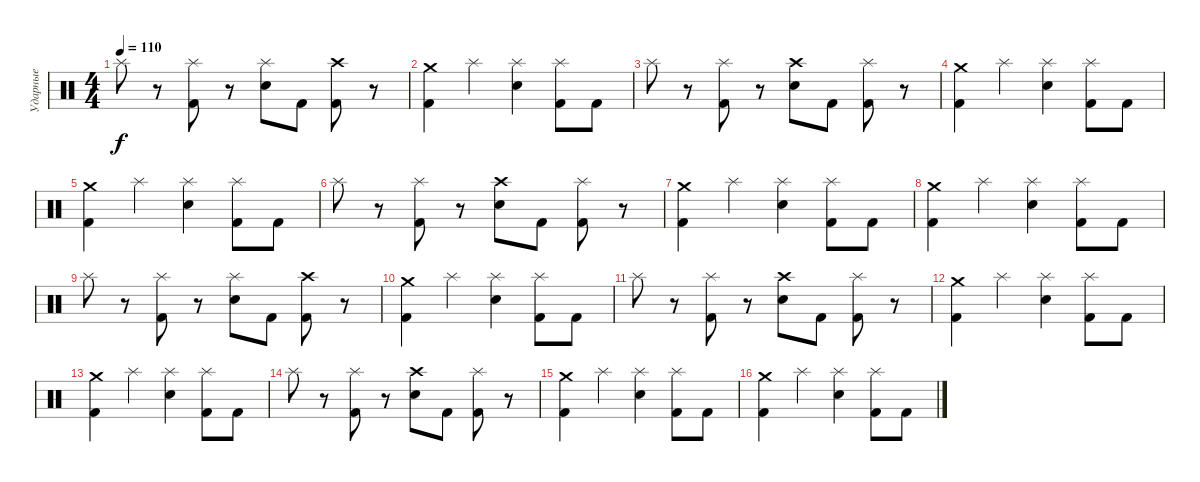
\track ("Ударные" "Ударные") {instrument percussion}
\staff {score}
\articulation defaults
\ts (4 4)
\tempo 110
\clef neutral
\ks c "Splash (hit)".8{dy f}
r.8 ("Splash (hit)" "Kick (hit) 2").8 r.8 ("Splash (hit)" "Electric Snare (hit)").8 "Kick (hit) 2".8 ("Crash high (hit)" "Kick (hit) 2").8 r.8 |
("Crash medium (hit)" "Kick (hit) 2").4 "Splash (hit)".4 ("Splash (hit)" "Electric Snare (hit)").4 ("Splash (hit)" "Kick (hit) 2").8 "Kick (hit) 2".8 |
"Splash (hit)".8 r.8 ("Splash (hit)" "Kick (hit) 2").8 r.8 ("Crash high (hit)" "Electric Snare (hit)").8 "Kick (hit) 2".8 ("Splash (hit)" "Kick (hit) 2").8 r.8 |
("Crash medium (hit)" "Kick (hit) 2").4 "Splash (hit)".4 ("Splash (hit)" "Electric Snare (hit)").4 ("Splash (hit)" "Kick (hit) 2").8 "Kick (hit) 2".8 |
("Crash medium (hit)" "Kick (hit) 2").4 "Splash (hit)".4 ("Splash (hit)" "Electric Snare (hit)").4 ("Splash (hit)" "Kick (hit) 2").8 "Kick (hit) 2".8 |
"Splash (hit)".8 r.8 ("Splash (hit)" "Kick (hit) 2").8 r.8 ("Crash high (hit)" "Electric Snare (hit)").8 "Kick (hit) 2".8 ("Splash (hit)" "Kick (hit) 2").8 r.8 |
("Crash medium (hit)" "Kick (hit) 2").4 "Splash (hit)".4 ("Splash (hit)" "Electric Snare (hit)").4 ("Splash (hit)" "Kick (hit) 2").8 "Kick (hit) 2".8 |
("Crash medium (hit)" "Kick (hit) 2").4 "Splash (hit)".4 ("Splash (hit)" "Electric Snare (hit)").4 ("Splash (hit)" "Kick (hit) 2").8 "Kick (hit) 2".8 |
"Splash (hit)".8 r.8 ("Splash (hit)" "Kick (hit) 2").8 r.8 ("Splash (hit)" "Electric Snare (hit)").8 "Kick (hit) 2".8 ("Crash high (hit)" "Kick (hit) 2").8 r.8 |
("Crash medium (hit)" "Kick (hit) 2").4 "Splash (hit)".4 ("Splash (hit)" "Electric Snare (hit)").4 ("Splash (hit)" "Kick (hit) 2").8 "Kick (hit) 2".8 |
"Splash (hit)".8 r.8 ("Splash (hit)" "Kick (hit) 2").8 r.8 ("Crash high (hit)" "Electric Snare (hit)").8 "Kick (hit) 2".8 ("Splash (hit)" "Kick (hit) 2").8 r.8 |
("Crash medium (hit)" "Kick (hit) 2").4 "Splash (hit)".4 ("Splash (hit)" "Electric Snare (hit)").4 ("Splash (hit)" "Kick (hit) 2").8 "Kick (hit) 2".8 |
("Crash medium (hit)" "Kick (hit) 2").4 "Splash (hit)".4 ("Splash (hit)" "Electric Snare (hit)").4 ("Splash (hit)" "Kick (hit) 2").8 "Kick (hit) 2".8 |
"Splash (hit)".8 r.8 ("Splash (hit)" "Kick (hit) 2").8 r.8 ("Crash high (hit)" "Electric Snare (hit)").8 "Kick (hit) 2".8 ("Splash (hit)" "Kick (hit) 2").8 r.8 |
("Crash medium (hit)" "Kick (hit) 2").4 "Splash (hit)".4 ("Splash (hit)" "Electric Snare (hit)").4 ("Splash (hit)" "Kick (hit) 2").8 "Kick (hit) 2".8 |
("Crash medium (hit)" "Kick (hit) 2").4 "Splash (hit)".4 ("Splash (hit)" "Electric Snare (hit)").4 ("Splash (hit)" "Kick (hit) 2").8 "Kick (hit) 2".8
